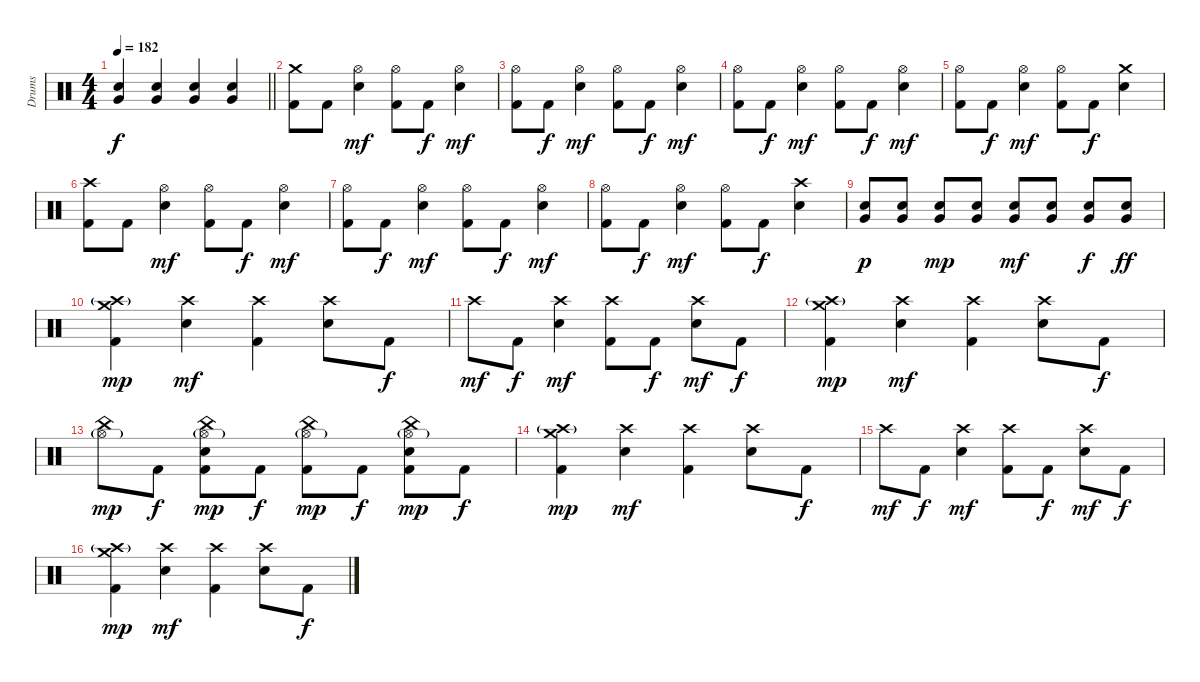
\track ("Drums" "Drums") {instrument percussion}
\staff {score}
\articulation defaults
\ts (4 4)
\tempo 182
\clef neutral
\barLineRight lightlight
\ks c
("Very Low Tom (hit)" "Electric Snare (hit)").4{dy f} ("Very Low Tom (hit)" "Electric Snare (hit)").4 ("Very Low Tom (hit)" "Electric Snare (hit)").4 ("Very Low Tom (hit)" "Electric Snare (hit)").4 |
("Crash medium (hit)" "Kick (hit) 2").8 "Kick (hit) 2".8 ("Hi-Hat (open)" "Electric Snare (hit)").4{dy mf} ("Hi-Hat (open)" "Kick (hit) 2").8 "Kick (hit) 2".8{dy f} ("Hi-Hat (open)" "Electric Snare (hit)").4{dy mf} |
("Hi-Hat (open)" "Kick (hit) 2").8 "Kick (hit) 2".8{dy f} ("Hi-Hat (open)" "Electric Snare (hit)").4{dy mf} ("Hi-Hat (open)" "Kick (hit) 2").8 "Kick (hit) 2".8{dy f} ("Hi-Hat (open)" "Electric Snare (hit)").4{dy mf} |
("Hi-Hat (open)" "Kick (hit) 2").8 "Kick (hit) 2".8{dy f} ("Hi-Hat (open)" "Electric Snare (hit)").4{dy mf} ("Hi-Hat (open)" "Kick (hit) 2").8 "Kick (hit) 2".8{dy f} ("Hi-Hat (open)" "Electric Snare (hit)").4{dy mf} |
("Hi-Hat (open)" "Kick (hit) 2").8 "Kick (hit) 2".8{dy f} ("Hi-Hat (open)" "Electric Snare (hit)").4{dy mf} ("Hi-Hat (open)" "Kick (hit) 2").8 "Kick (hit) 2".8{dy f} ("Crash medium (hit)" "Electric Snare (hit)").4 |
("Crash high (hit)" "Kick (hit) 2").8 "Kick (hit) 2".8 ("Hi-Hat (open)" "Electric Snare (hit)").4{dy mf} ("Hi-Hat (open)" "Kick (hit) 2").8 "Kick (hit) 2".8{dy f} ("Hi-Hat (open)" "Electric Snare (hit)").4{dy mf} |
("Hi-Hat (open)" "Kick (hit) 2").8 "Kick (hit) 2".8{dy f} ("Hi-Hat (open)" "Electric Snare (hit)").4{dy mf} ("Hi-Hat (open)" "Kick (hit) 2").8 "Kick (hit) 2".8{dy f} ("Hi-Hat (open)" "Electric Snare (hit)").4{dy mf} |
("Hi-Hat (open)" "Kick (hit) 2").8 "Kick (hit) 2".8{dy f} ("Hi-Hat (open)" "Electric Snare (hit)").4{dy mf} ("Hi-Hat (open)" "Kick (hit) 2").8 "Kick (hit) 2".8{dy f} ("Crash high (hit)" "Electric Snare (hit)").4 |
("Very Low Tom (hit)" "Electric Snare (hit)").8{dy p} ("Very Low Tom (hit)" "Electric Snare (hit)").8 ("Very Low Tom (hit)" "Electric Snare (hit)").8{dy mp} ("Very Low Tom (hit)" "Electric Snare (hit)").8 ("Very Low Tom (hit)" "Electric Snare (hit)").8{dy mf} ("Very Low Tom (hit)" "Electric Snare (hit)").8 ("Very Low Tom (hit)" "Electric Snare (hit)").8{dy f} ("Very Low Tom (hit)" "Electric Snare (hit)").8{dy ff} |
("Crash medium (hit)" "Crash high (hit)"{g} "Kick (hit) 2").4{dy mp} ("Crash high (hit)" "Electric Snare (hit)").4{dy mf} ("Crash high (hit)" "Kick (hit) 2").4 ("Crash high (hit)" "Electric Snare (hit)").8 "Kick (hit) 2".8{dy f} |
"Crash high (hit)".8{dy mf} "Kick (hit) 2".8{dy f} ("Crash high (hit)" "Electric Snare (hit)").4{dy mf} ("Crash high (hit)" "Kick (hit) 2").8 "Kick (hit) 2".8{dy f} ("Crash high (hit)" "Electric Snare (hit)").8{dy mf} "Kick (hit) 2".8{dy f} |
("Crash medium (hit)" "Crash high (hit)"{g} "Kick (hit) 2").4{dy mp} ("Crash high (hit)" "Electric Snare (hit)").4{dy mf} ("Crash high (hit)" "Kick (hit) 2").4 ("Crash high (hit)" "Electric Snare (hit)").8 "Kick (hit) 2".8{dy f} |
("China (hit)" "Hi-Hat (open)"{g}).8{dy mp} "Kick (hit) 2".8{dy f} ("China (hit)" "Hi-Hat (open)"{g} "Electric Snare (hit)" "Kick (hit) 2").8{dy mp} "Kick (hit) 2".8{dy f} ("China (hit)" "Hi-Hat (open)"{g} "Kick (hit) 2").8{dy mp} "Kick (hit) 2".8{dy f} ("China (hit)" "Hi-Hat (open)"{g} "Electric Snare (hit)" "Kick (hit) 2").8{dy mp} "Kick (hit) 2".8{dy f} |
("Crash medium (hit)" "Crash high (hit)"{g} "Kick (hit) 2").4{dy mp} ("Crash high (hit)" "Electric Snare (hit)").4{dy mf} ("Crash high (hit)" "Kick (hit) 2").4 ("Crash high (hit)" "Electric Snare (hit)").8 "Kick (hit) 2".8{dy f} |
"Crash high (hit)".8{dy mf} "Kick (hit) 2".8{dy f} ("Crash high (hit)" "Electric Snare (hit)").4{dy mf} ("Crash high (hit)" "Kick (hit) 2").8 "Kick (hit) 2".8{dy f} ("Crash high (hit)" "Electric Snare (hit)").8{dy mf} "Kick (hit) 2".8{dy f} |
("Crash medium (hit)" "Crash high (hit)"{g} "Kick (hit) 2").4{dy mp} ("Crash high (hit)" "Electric Snare (hit)").4{dy mf} ("Crash high (hit)" "Kick (hit) 2").4 ("Crash high (hit)" "Electric Snare (hit)").8 "Kick (hit) 2".8{dy f}
